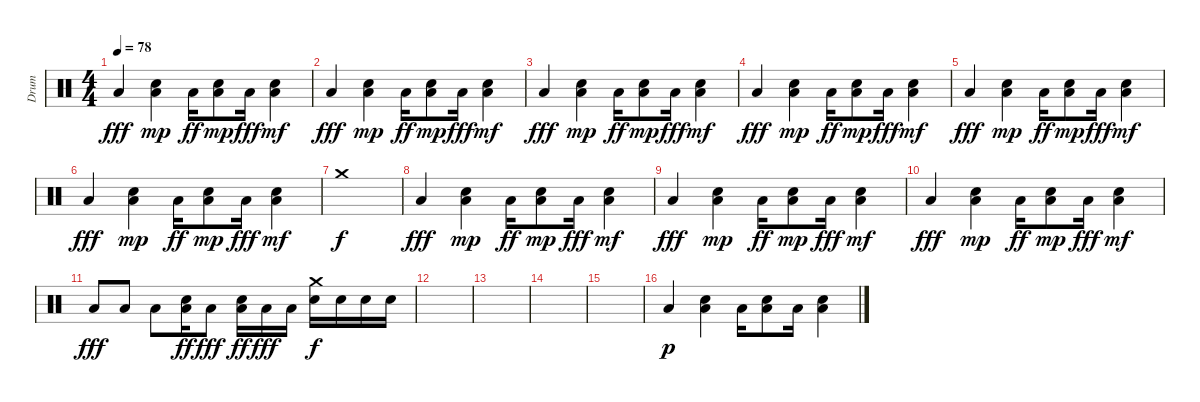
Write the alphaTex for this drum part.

\track ("Drum" "Drum") {instrument percussion}
\staff {score}
\articulation defaults
\ts (4 4)
\tempo 78
\clef neutral
\ks c "Low Floor Tom (hit)".4{dy fff}
("Electric Snare (hit)" "Low Floor Tom (hit)").4{dy mp} "Low Floor Tom (hit)".16{dy ff} ("Electric Snare (hit)" "Low Floor Tom (hit)").8{dy mp} "Low Floor Tom (hit)".16{dy fff} ("Electric Snare (hit)" "Low Floor Tom (hit)").4{dy mf} |
"Low Floor Tom (hit)".4{dy fff} ("Electric Snare (hit)" "Low Floor Tom (hit)").4{dy mp} "Low Floor Tom (hit)".16{dy ff} ("Electric Snare (hit)" "Low Floor Tom (hit)").8{dy mp} "Low Floor Tom (hit)".16{dy fff} ("Electric Snare (hit)" "Low Floor Tom (hit)").4{dy mf} |
"Low Floor Tom (hit)".4{dy fff} ("Electric Snare (hit)" "Low Floor Tom (hit)").4{dy mp} "Low Floor Tom (hit)".16{dy ff} ("Electric Snare (hit)" "Low Floor Tom (hit)").8{dy mp} "Low Floor Tom (hit)".16{dy fff} ("Electric Snare (hit)" "Low Floor Tom (hit)").4{dy mf} |
"Low Floor Tom (hit)".4{dy fff} ("Electric Snare (hit)" "Low Floor Tom (hit)").4{dy mp} "Low Floor Tom (hit)".16{dy ff} ("Electric Snare (hit)" "Low Floor Tom (hit)").8{dy mp} "Low Floor Tom (hit)".16{dy fff} ("Electric Snare (hit)" "Low Floor Tom (hit)").4{dy mf} |
"Low Floor Tom (hit)".4{dy fff} ("Electric Snare (hit)" "Low Floor Tom (hit)").4{dy mp} "Low Floor Tom (hit)".16{dy ff} ("Electric Snare (hit)" "Low Floor Tom (hit)").8{dy mp} "Low Floor Tom (hit)".16{dy fff} ("Electric Snare (hit)" "Low Floor Tom (hit)").4{dy mf} |
"Low Floor Tom (hit)".4{dy fff} ("Electric Snare (hit)" "Low Floor Tom (hit)").4{dy mp} "Low Floor Tom (hit)".16{dy ff} ("Electric Snare (hit)" "Low Floor Tom (hit)").8{dy mp} "Low Floor Tom (hit)".16{dy fff} ("Electric Snare (hit)" "Low Floor Tom (hit)").4{dy mf} |
"Crash medium (hit)".1{dy f} |
"Low Floor Tom (hit)".4{dy fff} ("Electric Snare (hit)" "Low Floor Tom (hit)").4{dy mp} "Low Floor Tom (hit)".16{dy ff} ("Electric Snare (hit)" "Low Floor Tom (hit)").8{dy mp} "Low Floor Tom (hit)".16{dy fff} ("Electric Snare (hit)" "Low Floor Tom (hit)").4{dy mf} |
"Low Floor Tom (hit)".4{dy fff} ("Electric Snare (hit)" "Low Floor Tom (hit)").4{dy mp} "Low Floor Tom (hit)".16{dy ff} ("Electric Snare (hit)" "Low Floor Tom (hit)").8{dy mp} "Low Floor Tom (hit)".16{dy fff} ("Electric Snare (hit)" "Low Floor Tom (hit)").4{dy mf} |
"Low Floor Tom (hit)".4{dy fff} ("Electric Snare (hit)" "Low Floor Tom (hit)").4{dy mp} "Low Floor Tom (hit)".16{dy ff} ("Electric Snare (hit)" "Low Floor Tom (hit)").8{dy mp} "Low Floor Tom (hit)".16{dy fff} ("Electric Snare (hit)" "Low Floor Tom (hit)").4{dy mf} |
"Low Floor Tom (hit)".8{dy fff} "Low Floor Tom (hit)".8 "Low Floor Tom (hit)".8 ("Electric Snare (hit)" "Low Floor Tom (hit)").16{dy ff} "Low Floor Tom (hit)".8{dy fff} ("Electric Snare (hit)" "Low Floor Tom (hit)").16{dy ff} "Low Floor Tom (hit)".16{dy fff} "Low Floor Tom (hit)".16 ("Electric Snare (hit)" "Crash medium (hit)").16{dy f} "Electric Snare (hit)".16 "Electric Snare (hit)".16 "Electric Snare (hit)".16 |
|
|
|
|
"Low Floor Tom (hit)".4{dy p} ("Electric Snare (hit)" "Low Floor Tom (hit)").4 "Low Floor Tom (hit)".16 ("Electric Snare (hit)" "Low Floor Tom (hit)").8 "Low Floor Tom (hit)".16 ("Electric Snare (hit)" "Low Floor Tom (hit)").4
